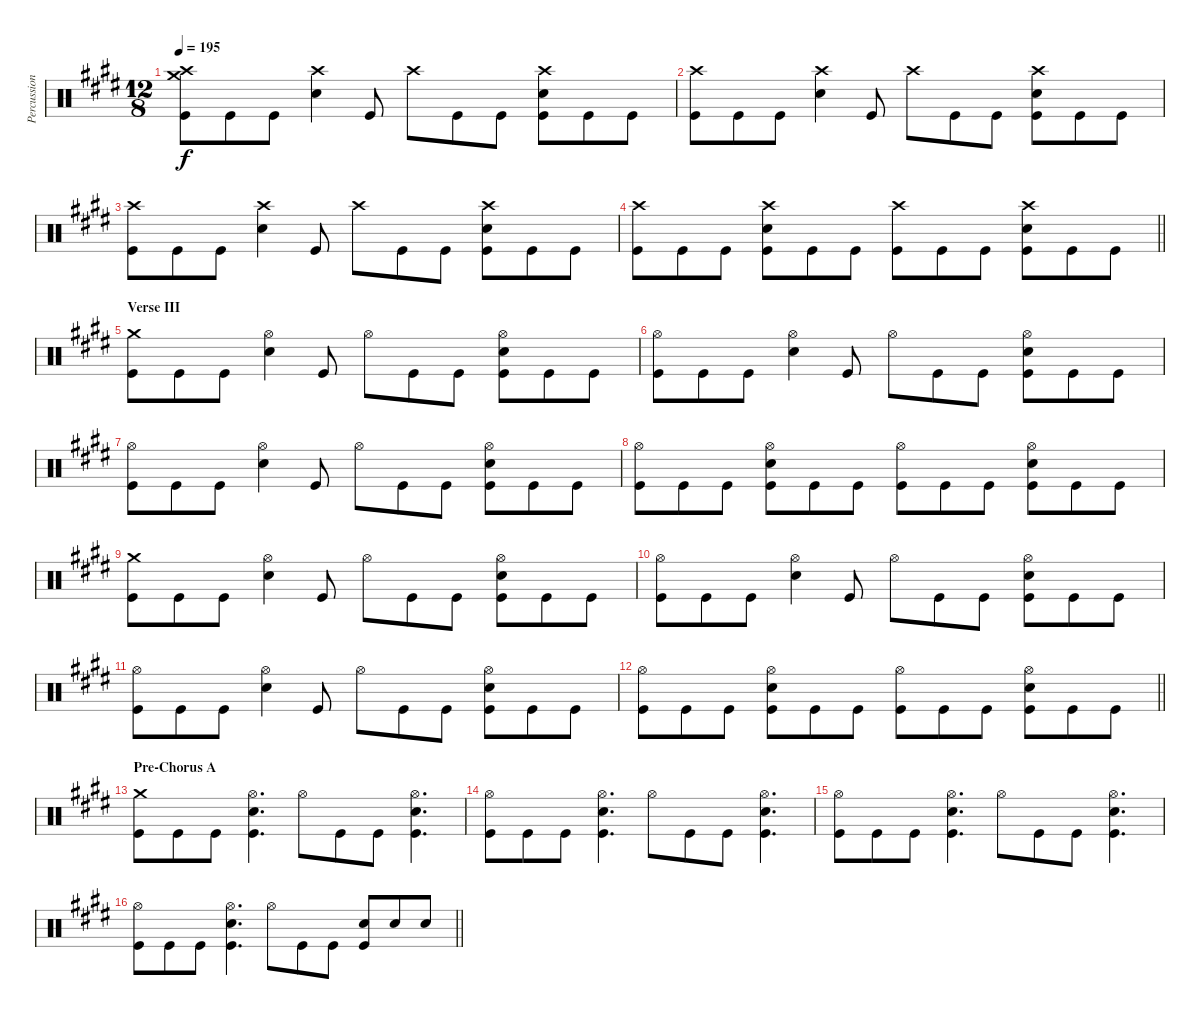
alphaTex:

\track ("Percussion" "Percussion") {instrument percussion}
\staff {score}
\articulation defaults
\ts (12 8)
\tempo 195
\clef neutral
\ks e
("Crash high (hit)" "Crash medium (hit)" "Kick (hit)").8{dy f} "Kick (hit)".8 "Kick (hit)".8 ("Crash high (hit)" "Electric Snare (hit)").4 "Kick (hit)".8 "Crash high (hit)".8 "Kick (hit)".8 "Kick (hit)".8 ("Crash high (hit)" "Electric Snare (hit)" "Kick (hit)").8 "Kick (hit)".8 "Kick (hit)".8 |
("Crash high (hit)" "Kick (hit)").8 "Kick (hit)".8 "Kick (hit)".8 ("Crash high (hit)" "Electric Snare (hit)").4 "Kick (hit)".8 "Crash high (hit)".8 "Kick (hit)".8 "Kick (hit)".8 ("Crash high (hit)" "Electric Snare (hit)" "Kick (hit)").8 "Kick (hit)".8 "Kick (hit)".8 |
("Crash high (hit)" "Kick (hit)").8 "Kick (hit)".8 "Kick (hit)".8 ("Crash high (hit)" "Electric Snare (hit)").4 "Kick (hit)".8 "Crash high (hit)".8 "Kick (hit)".8 "Kick (hit)".8 ("Crash high (hit)" "Electric Snare (hit)" "Kick (hit)").8 "Kick (hit)".8 "Kick (hit)".8 |
\barLineRight lightlight
("Crash high (hit)" "Kick (hit)").8 "Kick (hit)".8 "Kick (hit)".8 ("Crash high (hit)" "Electric Snare (hit)" "Kick (hit)").8 "Kick (hit)".8 "Kick (hit)".8 ("Crash high (hit)" "Kick (hit)").8 "Kick (hit)".8 "Kick (hit)".8 ("Crash high (hit)" "Electric Snare (hit)" "Kick (hit)").8 "Kick (hit)".8 "Kick (hit)".8 |
\section ("" "Verse III")
("Crash medium (hit)" "Kick (hit)").8 "Kick (hit)".8 "Kick (hit)".8 ("Hi-Hat (open)" "Electric Snare (hit)").4 "Kick (hit)".8 "Hi-Hat (open)".8 "Kick (hit)".8 "Kick (hit)".8 ("Hi-Hat (open)" "Electric Snare (hit)" "Kick (hit)").8 "Kick (hit)".8 "Kick (hit)".8 |
("Hi-Hat (open)" "Kick (hit)").8 "Kick (hit)".8 "Kick (hit)".8 ("Hi-Hat (open)" "Electric Snare (hit)").4 "Kick (hit)".8 "Hi-Hat (open)".8 "Kick (hit)".8 "Kick (hit)".8 ("Hi-Hat (open)" "Electric Snare (hit)" "Kick (hit)").8 "Kick (hit)".8 "Kick (hit)".8 |
("Hi-Hat (open)" "Kick (hit)").8 "Kick (hit)".8 "Kick (hit)".8 ("Hi-Hat (open)" "Electric Snare (hit)").4 "Kick (hit)".8 "Hi-Hat (open)".8 "Kick (hit)".8 "Kick (hit)".8 ("Hi-Hat (open)" "Electric Snare (hit)" "Kick (hit)").8 "Kick (hit)".8 "Kick (hit)".8 |
("Hi-Hat (open)" "Kick (hit)").8 "Kick (hit)".8 "Kick (hit)".8 ("Hi-Hat (open)" "Electric Snare (hit)" "Kick (hit)").8 "Kick (hit)".8 "Kick (hit)".8 ("Hi-Hat (open)" "Kick (hit)").8 "Kick (hit)".8 "Kick (hit)".8 ("Hi-Hat (open)" "Electric Snare (hit)" "Kick (hit)").8 "Kick (hit)".8 "Kick (hit)".8 |
("Crash medium (hit)" "Kick (hit)").8 "Kick (hit)".8 "Kick (hit)".8 ("Hi-Hat (open)" "Electric Snare (hit)").4 "Kick (hit)".8 "Hi-Hat (open)".8 "Kick (hit)".8 "Kick (hit)".8 ("Hi-Hat (open)" "Electric Snare (hit)" "Kick (hit)").8 "Kick (hit)".8 "Kick (hit)".8 |
("Hi-Hat (open)" "Kick (hit)").8 "Kick (hit)".8 "Kick (hit)".8 ("Hi-Hat (open)" "Electric Snare (hit)").4 "Kick (hit)".8 "Hi-Hat (open)".8 "Kick (hit)".8 "Kick (hit)".8 ("Hi-Hat (open)" "Electric Snare (hit)" "Kick (hit)").8 "Kick (hit)".8 "Kick (hit)".8 |
("Hi-Hat (open)" "Kick (hit)").8 "Kick (hit)".8 "Kick (hit)".8 ("Hi-Hat (open)" "Electric Snare (hit)").4 "Kick (hit)".8 "Hi-Hat (open)".8 "Kick (hit)".8 "Kick (hit)".8 ("Hi-Hat (open)" "Electric Snare (hit)" "Kick (hit)").8 "Kick (hit)".8 "Kick (hit)".8 |
\barLineRight lightlight
("Hi-Hat (open)" "Kick (hit)").8 "Kick (hit)".8 "Kick (hit)".8 ("Hi-Hat (open)" "Electric Snare (hit)" "Kick (hit)").8 "Kick (hit)".8 "Kick (hit)".8 ("Hi-Hat (open)" "Kick (hit)").8 "Kick (hit)".8 "Kick (hit)".8 ("Hi-Hat (open)" "Electric Snare (hit)" "Kick (hit)").8 "Kick (hit)".8 "Kick (hit)".8 |
\section ("" "Pre-Chorus A")
("Crash medium (hit)" "Kick (hit)").8 "Kick (hit)".8 "Kick (hit)".8 ("Hi-Hat (open)" "Electric Snare (hit)" "Kick (hit)").4{d} "Hi-Hat (open)".8 "Kick (hit)".8 "Kick (hit)".8 ("Hi-Hat (open)" "Electric Snare (hit)" "Kick (hit)").4{d} |
("Hi-Hat (open)" "Kick (hit)").8 "Kick (hit)".8 "Kick (hit)".8 ("Hi-Hat (open)" "Electric Snare (hit)" "Kick (hit)").4{d} "Hi-Hat (open)".8 "Kick (hit)".8 "Kick (hit)".8 ("Hi-Hat (open)" "Electric Snare (hit)" "Kick (hit)").4{d} |
("Hi-Hat (open)" "Kick (hit)").8 "Kick (hit)".8 "Kick (hit)".8 ("Hi-Hat (open)" "Electric Snare (hit)" "Kick (hit)").4{d} "Hi-Hat (open)".8 "Kick (hit)".8 "Kick (hit)".8 ("Hi-Hat (open)" "Electric Snare (hit)" "Kick (hit)").4{d} |
\barLineRight lightlight
("Hi-Hat (open)" "Kick (hit)").8 "Kick (hit)".8 "Kick (hit)".8 ("Hi-Hat (open)" "Electric Snare (hit)" "Kick (hit)").4{d} "Hi-Hat (open)".8 "Kick (hit)".8 "Kick (hit)".8 ("Electric Snare (hit)" "Kick (hit)").8 "Electric Snare (hit)".8 "Electric Snare (hit)".8
